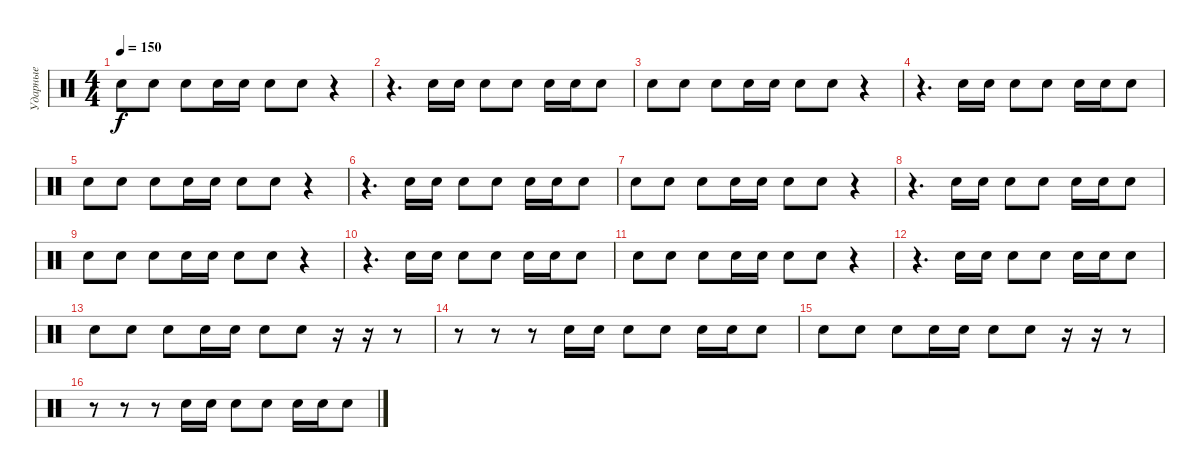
\track ("Ударные" "Ударные") {instrument percussion}
\staff {score}
\articulation defaults
\ts (4 4)
\tempo 150
\clef neutral
\ks c "Electric Snare (hit)".8{dy f} "Electric Snare (hit)".8 "Electric Snare (hit)".8 "Electric Snare (hit)".16 "Electric Snare (hit)".16 "Electric Snare (hit)".8 "Electric Snare (hit)".8
r.4 |
r.4{d} "Electric Snare (hit)".16 "Electric Snare (hit)".16 "Electric Snare (hit)".8 "Electric Snare (hit)".8 "Electric Snare (hit)".16 "Electric Snare (hit)".16 "Electric Snare (hit)".8 |
"Electric Snare (hit)".8 "Electric Snare (hit)".8 "Electric Snare (hit)".8 "Electric Snare (hit)".16 "Electric Snare (hit)".16 "Electric Snare (hit)".8 "Electric Snare (hit)".8 r.4 |
r.4{d} "Electric Snare (hit)".16 "Electric Snare (hit)".16 "Electric Snare (hit)".8 "Electric Snare (hit)".8 "Electric Snare (hit)".16 "Electric Snare (hit)".16 "Electric Snare (hit)".8 |
"Electric Snare (hit)".8 "Electric Snare (hit)".8 "Electric Snare (hit)".8 "Electric Snare (hit)".16 "Electric Snare (hit)".16 "Electric Snare (hit)".8 "Electric Snare (hit)".8 r.4 |
r.4{d} "Electric Snare (hit)".16 "Electric Snare (hit)".16 "Electric Snare (hit)".8 "Electric Snare (hit)".8 "Electric Snare (hit)".16 "Electric Snare (hit)".16 "Electric Snare (hit)".8 |
"Electric Snare (hit)".8 "Electric Snare (hit)".8 "Electric Snare (hit)".8 "Electric Snare (hit)".16 "Electric Snare (hit)".16 "Electric Snare (hit)".8 "Electric Snare (hit)".8 r.4 |
r.4{d} "Electric Snare (hit)".16 "Electric Snare (hit)".16 "Electric Snare (hit)".8 "Electric Snare (hit)".8 "Electric Snare (hit)".16 "Electric Snare (hit)".16 "Electric Snare (hit)".8 |
"Electric Snare (hit)".8 "Electric Snare (hit)".8 "Electric Snare (hit)".8 "Electric Snare (hit)".16 "Electric Snare (hit)".16 "Electric Snare (hit)".8 "Electric Snare (hit)".8 r.4 |
r.4{d} "Electric Snare (hit)".16 "Electric Snare (hit)".16 "Electric Snare (hit)".8 "Electric Snare (hit)".8 "Electric Snare (hit)".16 "Electric Snare (hit)".16 "Electric Snare (hit)".8 |
"Electric Snare (hit)".8 "Electric Snare (hit)".8 "Electric Snare (hit)".8 "Electric Snare (hit)".16 "Electric Snare (hit)".16 "Electric Snare (hit)".8 "Electric Snare (hit)".8 r.4 |
r.4{d} "Electric Snare (hit)".16 "Electric Snare (hit)".16 "Electric Snare (hit)".8 "Electric Snare (hit)".8 "Electric Snare (hit)".16 "Electric Snare (hit)".16 "Electric Snare (hit)".8 |
"Electric Snare (hit)".8{volume 13} "Electric Snare (hit)".8 "Electric Snare (hit)".8 "Electric Snare (hit)".16 "Electric Snare (hit)".16 "Electric Snare (hit)".8 "Electric Snare (hit)".8 r.16 r.16 r.8 |
r.8 r.8 r.8 "Electric Snare (hit)".16 "Electric Snare (hit)".16 "Electric Snare (hit)".8 "Electric Snare (hit)".8 "Electric Snare (hit)".16 "Electric Snare (hit)".16 "Electric Snare (hit)".8 |
"Electric Snare (hit)".8 "Electric Snare (hit)".8 "Electric Snare (hit)".8 "Electric Snare (hit)".16 "Electric Snare (hit)".16 "Electric Snare (hit)".8 "Electric Snare (hit)".8 r.16 r.16 r.8 |
r.8 r.8 r.8 "Electric Snare (hit)".16 "Electric Snare (hit)".16 "Electric Snare (hit)".8 "Electric Snare (hit)".8 "Electric Snare (hit)".16 "Electric Snare (hit)".16 "Electric Snare (hit)".8
